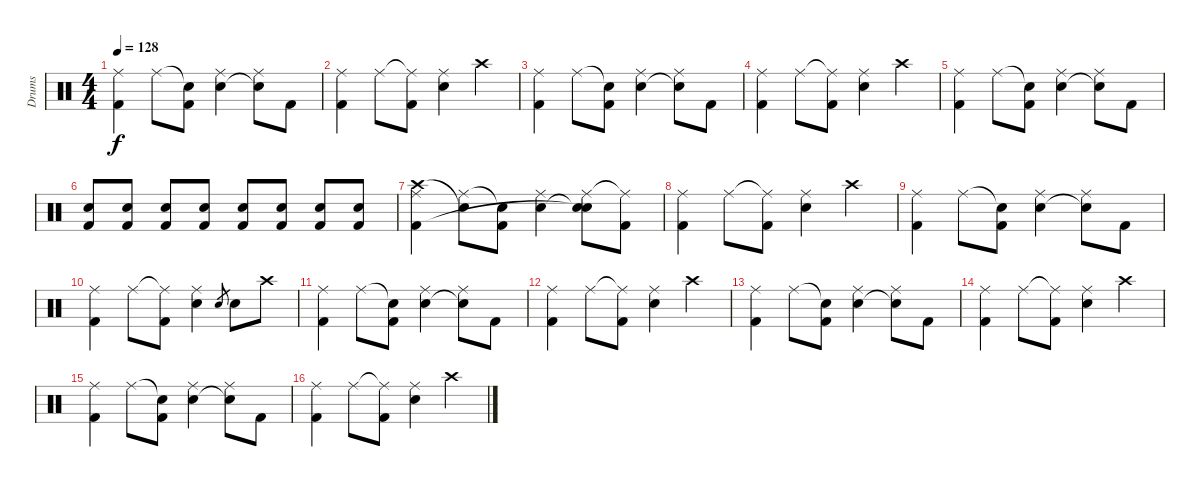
\track ("Drums" "Drums") {instrument percussion}
\staff {score}
\articulation defaults
\ts (4 4)
\tempo 128
\clef neutral
\ks c
("Ride (middle)" "Kick (hit) 2").4{dy f} "Ride (middle)".8 ("Snare (hit)"{t} "Kick (hit) 2").8 ("Ride (middle)" "Snare (hit) 2").4 ("Ride (middle)" "Snare (hit)"{t}).8 "Kick (hit) 2".8 |
("Ride (middle)" "Kick (hit) 2").4 "Ride (middle)".8 ("Ride (middle)"{t} "Kick (hit) 2").8 ("Ride (middle)" "Snare (hit) 2").4 "Crash high (hit)".4 |
("Ride (middle)" "Kick (hit) 2").4 "Ride (middle)".8 ("Snare (hit)"{t} "Kick (hit) 2").8 ("Ride (middle)" "Snare (hit) 2").4 ("Ride (middle)" "Snare (hit)"{t}).8 "Kick (hit) 2".8 |
("Ride (middle)" "Kick (hit) 2").4 "Ride (middle)".8 ("Ride (middle)"{t} "Kick (hit) 2").8 ("Ride (middle)" "Snare (hit) 2").4 "Crash high (hit)".4 |
("Ride (middle)" "Kick (hit) 2").4 "Ride (middle)".8 ("Snare (hit)"{t} "Kick (hit) 2").8 ("Ride (middle)" "Snare (hit) 2").4 ("Ride (middle)" "Snare (hit)"{t}).8 "Kick (hit) 2".8 |
("Snare (hit) 2" "Kick (hit) 2").8 ("Snare (hit) 2" "Kick (hit) 2").8 ("Snare (hit) 2" "Kick (hit) 2").8 ("Snare (hit) 2" "Kick (hit) 2").8 ("Snare (hit) 2" "Kick (hit) 2").8 ("Snare (hit) 2" "Kick (hit) 2").8 ("Snare (hit) 2" "Kick (hit) 2").8 ("Snare (hit) 2" "Kick (hit) 2").8 |
("Ride (middle)" "Crash high (hit)" "Kick (hit) 2").4 ("Ride (middle)" "Snare (hit)"{t}).8 ("Snare (hit)"{t} "Kick (hit) 2").8 ("Ride (middle)" "Snare (hit) 2").4 ("Ride (middle)" "Snare (hit)"{t} "Snare (hit)"{t}).8 ("Ride (middle)"{t} "Kick (hit) 2").8 |
("Ride (middle)" "Kick (hit) 2").4 "Ride (middle)".8 ("Ride (middle)"{t} "Kick (hit) 2").8 ("Ride (middle)" "Snare (hit) 2").4 "Crash high (hit)".4 |
("Ride (middle)" "Kick (hit) 2").4 "Ride (middle)".8 ("Snare (hit)"{t} "Kick (hit) 2").8 ("Ride (middle)" "Snare (hit) 2").4 ("Ride (middle)" "Snare (hit)"{t}).8 "Kick (hit) 2".8 |
("Ride (middle)" "Kick (hit) 2").4 "Ride (middle)".8 ("Ride (middle)"{t} "Kick (hit) 2").8 ("Ride (middle)" "Snare (hit) 2").4 "Snare (hit) 2".8{gr} "Snare (hit) 2".8 "Crash high (hit)".8 |
("Ride (middle)" "Kick (hit) 2").4 "Ride (middle)".8 ("Snare (hit)"{t} "Kick (hit) 2").8 ("Ride (middle)" "Snare (hit) 2").4 ("Ride (middle)" "Snare (hit)"{t}).8 "Kick (hit) 2".8 |
("Ride (middle)" "Kick (hit) 2").4 "Ride (middle)".8 ("Ride (middle)"{t} "Kick (hit) 2").8 ("Ride (middle)" "Snare (hit) 2").4 "Crash high (hit)".4 |
("Ride (middle)" "Kick (hit) 2").4 "Ride (middle)".8 ("Snare (hit)"{t} "Kick (hit) 2").8 ("Ride (middle)" "Snare (hit) 2").4 ("Ride (middle)" "Snare (hit)"{t}).8 "Kick (hit) 2".8 |
("Ride (middle)" "Kick (hit) 2").4 "Ride (middle)".8 ("Ride (middle)"{t} "Kick (hit) 2").8 ("Ride (middle)" "Snare (hit) 2").4 "Crash high (hit)".4 |
("Ride (middle)" "Kick (hit) 2").4 "Ride (middle)".8 ("Snare (hit)"{t} "Kick (hit) 2").8 ("Ride (middle)" "Snare (hit) 2").4 ("Ride (middle)" "Snare (hit)"{t}).8 "Kick (hit) 2".8 |
("Ride (middle)" "Kick (hit) 2").4 "Ride (middle)".8 ("Ride (middle)"{t} "Kick (hit) 2").8 ("Ride (middle)" "Snare (hit) 2").4 "Crash high (hit)".4
